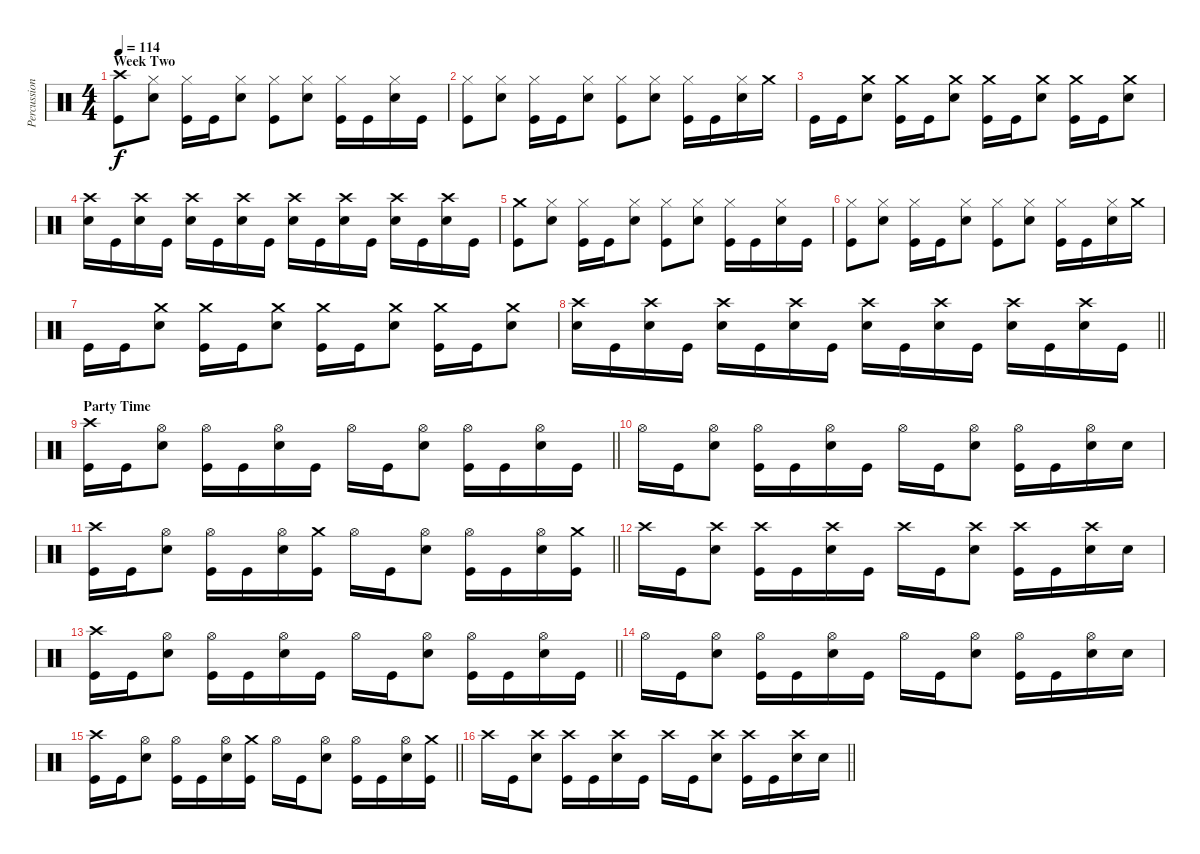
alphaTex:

\track ("Percussion" "Percussion") {instrument percussion}
\staff {score}
\articulation defaults
\ts (4 4)
\section ("" "Week Two")
\tempo 114
\clef neutral
\ks c
("Crash high (hit)" "Kick (hit)").8{dy f} ("Hi-Hat (closed)" "Electric Snare (hit)").8 ("Hi-Hat (closed)" "Kick (hit)").16 "Kick (hit)".16 ("Hi-Hat (closed)" "Electric Snare (hit)").8 ("Hi-Hat (closed)" "Kick (hit)").8 ("Hi-Hat (closed)" "Electric Snare (hit)").8 ("Hi-Hat (closed)" "Kick (hit)").16 "Kick (hit)".16 ("Hi-Hat (closed)" "Electric Snare (hit)").16 "Kick (hit)".16 |
("Hi-Hat (closed)" "Kick (hit)").8 ("Hi-Hat (closed)" "Electric Snare (hit)").8 ("Hi-Hat (closed)" "Kick (hit)").16 "Kick (hit)".16 ("Hi-Hat (closed)" "Electric Snare (hit)").8 ("Hi-Hat (closed)" "Kick (hit)").8 ("Hi-Hat (closed)" "Electric Snare (hit)").8 ("Hi-Hat (closed)" "Kick (hit)").16 "Kick (hit)".16 ("Hi-Hat (closed)" "Electric Snare (hit)").16 "Crash medium (hit)".16 |
"Kick (hit)".16 "Kick (hit)".16 ("Crash medium (hit)" "Electric Snare (hit)").8 ("Crash medium (hit)" "Kick (hit)").16 "Kick (hit)".16 ("Crash medium (hit)" "Electric Snare (hit)").8 ("Crash medium (hit)" "Kick (hit)").16 "Kick (hit)".16 ("Crash medium (hit)" "Electric Snare (hit)").8 ("Crash medium (hit)" "Kick (hit)").16 "Kick (hit)".16 ("Crash medium (hit)" "Electric Snare (hit)").8 |
("Crash high (hit)" "Electric Snare (hit)").16 "Kick (hit)".16 ("Crash high (hit)" "Electric Snare (hit)").16 "Kick (hit)".16 ("Crash high (hit)" "Electric Snare (hit)").16 "Kick (hit)".16 ("Crash high (hit)" "Electric Snare (hit)").16 "Kick (hit)".16 ("Crash high (hit)" "Electric Snare (hit)").16 "Kick (hit)".16 ("Crash high (hit)" "Electric Snare (hit)").16 "Kick (hit)".16 ("Crash high (hit)" "Electric Snare (hit)").16 "Kick (hit)".16 ("Crash high (hit)" "Electric Snare (hit)").16 "Kick (hit)".16 |
("Crash medium (hit)" "Kick (hit)").8 ("Hi-Hat (closed)" "Electric Snare (hit)").8 ("Hi-Hat (closed)" "Kick (hit)").16 "Kick (hit)".16 ("Hi-Hat (closed)" "Electric Snare (hit)").8 ("Hi-Hat (closed)" "Kick (hit)").8 ("Hi-Hat (closed)" "Electric Snare (hit)").8 ("Hi-Hat (closed)" "Kick (hit)").16 "Kick (hit)".16 ("Hi-Hat (closed)" "Electric Snare (hit)").16 "Kick (hit)".16 |
("Hi-Hat (closed)" "Kick (hit)").8 ("Hi-Hat (closed)" "Electric Snare (hit)").8 ("Hi-Hat (closed)" "Kick (hit)").16 "Kick (hit)".16 ("Hi-Hat (closed)" "Electric Snare (hit)").8 ("Hi-Hat (closed)" "Kick (hit)").8 ("Hi-Hat (closed)" "Electric Snare (hit)").8 ("Hi-Hat (closed)" "Kick (hit)").16 "Kick (hit)".16 ("Hi-Hat (closed)" "Electric Snare (hit)").16 "Crash medium (hit)".16 |
"Kick (hit)".16 "Kick (hit)".16 ("Crash medium (hit)" "Electric Snare (hit)").8 ("Crash medium (hit)" "Kick (hit)").16 "Kick (hit)".16 ("Crash medium (hit)" "Electric Snare (hit)").8 ("Crash medium (hit)" "Kick (hit)").16 "Kick (hit)".16 ("Crash medium (hit)" "Electric Snare (hit)").8 ("Crash medium (hit)" "Kick (hit)").16 "Kick (hit)".16 ("Crash medium (hit)" "Electric Snare (hit)").8 |
\barLineRight lightlight
("Crash high (hit)" "Electric Snare (hit)").16 "Kick (hit)".16 ("Crash high (hit)" "Electric Snare (hit)").16 "Kick (hit)".16 ("Crash high (hit)" "Electric Snare (hit)").16 "Kick (hit)".16 ("Crash high (hit)" "Electric Snare (hit)").16 "Kick (hit)".16 ("Crash high (hit)" "Electric Snare (hit)").16 "Kick (hit)".16 ("Crash high (hit)" "Electric Snare (hit)").16 "Kick (hit)".16 ("Crash high (hit)" "Electric Snare (hit)").16 "Kick (hit)".16 ("Crash high (hit)" "Electric Snare (hit)").16 "Kick (hit)".16 |
\section ("" "Party Time")
\barLineRight lightlight
("Crash high (hit)" "Kick (hit)").16 "Kick (hit)".16 ("Hi-Hat (open)" "Electric Snare (hit)").8 ("Hi-Hat (open)" "Kick (hit)").16 "Kick (hit)".16 ("Hi-Hat (open)" "Electric Snare (hit)").16 "Kick (hit)".16 "Hi-Hat (open)".16 "Kick (hit)".16 ("Hi-Hat (open)" "Electric Snare (hit)").8 ("Hi-Hat (open)" "Kick (hit)").16 "Kick (hit)".16 ("Hi-Hat (open)" "Electric Snare (hit)").16 "Kick (hit)".16 |
"Hi-Hat (open)".16 "Kick (hit)".16 ("Hi-Hat (open)" "Electric Snare (hit)").8 ("Hi-Hat (open)" "Kick (hit)").16 "Kick (hit)".16 ("Hi-Hat (open)" "Electric Snare (hit)").16 "Kick (hit)".16 "Hi-Hat (open)".16 "Kick (hit)".16 ("Hi-Hat (open)" "Electric Snare (hit)").8 ("Hi-Hat (open)" "Kick (hit)").16 "Kick (hit)".16 ("Hi-Hat (open)" "Electric Snare (hit)").16 "Electric Snare (hit)".16 |
\barLineRight lightlight
("Crash high (hit)" "Kick (hit)").16 "Kick (hit)".16 ("Hi-Hat (open)" "Electric Snare (hit)").8 ("Hi-Hat (open)" "Kick (hit)").16 "Kick (hit)".16 ("Hi-Hat (open)" "Electric Snare (hit)").16 ("Crash medium (hit)" "Kick (hit)").16 "Hi-Hat (open)".16 "Kick (hit)".16 ("Hi-Hat (open)" "Electric Snare (hit)").8 ("Hi-Hat (open)" "Kick (hit)").16 "Kick (hit)".16 ("Hi-Hat (open)" "Electric Snare (hit)").16 ("Crash medium (hit)" "Kick (hit)").16 |
"Crash high (hit)".16 "Kick (hit)".16 ("Crash high (hit)" "Electric Snare (hit)").8 ("Crash high (hit)" "Kick (hit)").16 "Kick (hit)".16 ("Crash high (hit)" "Electric Snare (hit)").16 "Kick (hit)".16 "Crash high (hit)".16 "Kick (hit)".16 ("Crash high (hit)" "Electric Snare (hit)").8 ("Crash high (hit)" "Kick (hit)").16 "Kick (hit)".16 ("Crash high (hit)" "Electric Snare (hit)").16 "Electric Snare (hit)".16 |
\barLineRight lightlight
("Crash high (hit)" "Kick (hit)").16 "Kick (hit)".16 ("Hi-Hat (open)" "Electric Snare (hit)").8 ("Hi-Hat (open)" "Kick (hit)").16 "Kick (hit)".16 ("Hi-Hat (open)" "Electric Snare (hit)").16 "Kick (hit)".16 "Hi-Hat (open)".16 "Kick (hit)".16 ("Hi-Hat (open)" "Electric Snare (hit)").8 ("Hi-Hat (open)" "Kick (hit)").16 "Kick (hit)".16 ("Hi-Hat (open)" "Electric Snare (hit)").16 "Kick (hit)".16 |
"Hi-Hat (open)".16 "Kick (hit)".16 ("Hi-Hat (open)" "Electric Snare (hit)").8 ("Hi-Hat (open)" "Kick (hit)").16 "Kick (hit)".16 ("Hi-Hat (open)" "Electric Snare (hit)").16 "Kick (hit)".16 "Hi-Hat (open)".16 "Kick (hit)".16 ("Hi-Hat (open)" "Electric Snare (hit)").8 ("Hi-Hat (open)" "Kick (hit)").16 "Kick (hit)".16 ("Hi-Hat (open)" "Electric Snare (hit)").16 "Electric Snare (hit)".16 |
\barLineRight lightlight
("Crash high (hit)" "Kick (hit)").16 "Kick (hit)".16 ("Hi-Hat (open)" "Electric Snare (hit)").8 ("Hi-Hat (open)" "Kick (hit)").16 "Kick (hit)".16 ("Hi-Hat (open)" "Electric Snare (hit)").16 ("Crash medium (hit)" "Kick (hit)").16 "Hi-Hat (open)".16 "Kick (hit)".16 ("Hi-Hat (open)" "Electric Snare (hit)").8 ("Hi-Hat (open)" "Kick (hit)").16 "Kick (hit)".16 ("Hi-Hat (open)" "Electric Snare (hit)").16 ("Crash medium (hit)" "Kick (hit)").16 |
\barLineRight lightlight "Crash high (hit)".16 "Kick (hit)".16
("Crash high (hit)" "Electric Snare (hit)").8 ("Crash high (hit)" "Kick (hit)").16 "Kick (hit)".16 ("Crash high (hit)" "Electric Snare (hit)").16 "Kick (hit)".16 "Crash high (hit)".16 "Kick (hit)".16 ("Crash high (hit)" "Electric Snare (hit)").8 ("Crash high (hit)" "Kick (hit)").16 "Kick (hit)".16 ("Crash high (hit)" "Electric Snare (hit)").16 "Electric Snare (hit)".16
